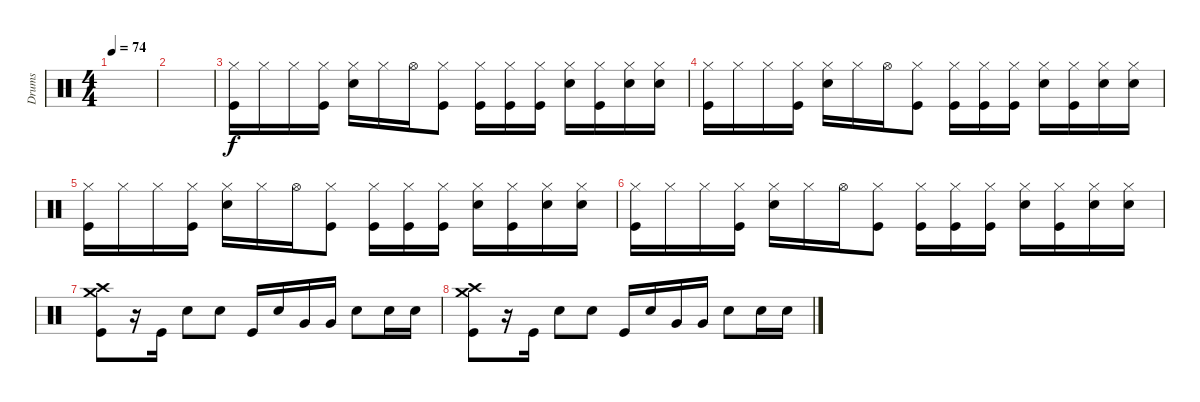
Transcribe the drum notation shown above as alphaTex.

\track ("Drums" "Drums") {instrument percussion}
\staff {score}
\articulation defaults
\ts (4 4)
\tempo 74
\clef neutral
\ks c
|
|
("Kick (hit)" "Hi-Hat (closed)").16 "Hi-Hat (closed)".16 "Hi-Hat (closed)".16 ("Kick (hit)" "Hi-Hat (closed)").16 ("Snare (hit) 2" "Hi-Hat (closed)").16 "Hi-Hat (closed)".16 "Hi-Hat (open)".16 ("Kick (hit)" "Hi-Hat (closed)").8 ("Hi-Hat (closed)" "Kick (hit)").16 ("Hi-Hat (closed)" "Kick (hit)").16 ("Kick (hit)" "Hi-Hat (closed)").16 ("Snare (hit) 2" "Hi-Hat (closed)").16 ("Kick (hit)" "Hi-Hat (closed)").16 ("Snare (hit) 2" "Hi-Hat (closed)").16 ("Snare (hit) 2" "Hi-Hat (closed)").16 |
("Kick (hit)" "Hi-Hat (closed)").16 "Hi-Hat (closed)".16 "Hi-Hat (closed)".16 ("Kick (hit)" "Hi-Hat (closed)").16 ("Snare (hit) 2" "Hi-Hat (closed)").16 "Hi-Hat (closed)".16 "Hi-Hat (open)".16 ("Kick (hit)" "Hi-Hat (closed)").8 ("Hi-Hat (closed)" "Kick (hit)").16 ("Hi-Hat (closed)" "Kick (hit)").16 ("Kick (hit)" "Hi-Hat (closed)").16 ("Snare (hit) 2" "Hi-Hat (closed)").16 ("Kick (hit)" "Hi-Hat (closed)").16 ("Snare (hit) 2" "Hi-Hat (closed)").16 ("Snare (hit) 2" "Hi-Hat (closed)").16 |
("Kick (hit)" "Hi-Hat (closed)").16 "Hi-Hat (closed)".16 "Hi-Hat (closed)".16 ("Kick (hit)" "Hi-Hat (closed)").16 ("Snare (hit) 2" "Hi-Hat (closed)").16 "Hi-Hat (closed)".16 "Hi-Hat (open)".16 ("Kick (hit)" "Hi-Hat (closed)").8 ("Hi-Hat (closed)" "Kick (hit)").16 ("Hi-Hat (closed)" "Kick (hit)").16 ("Kick (hit)" "Hi-Hat (closed)").16 ("Snare (hit) 2" "Hi-Hat (closed)").16 ("Kick (hit)" "Hi-Hat (closed)").16 ("Snare (hit) 2" "Hi-Hat (closed)").16 ("Snare (hit) 2" "Hi-Hat (closed)").16 |
("Kick (hit)" "Hi-Hat (closed)").16 "Hi-Hat (closed)".16 "Hi-Hat (closed)".16 ("Kick (hit)" "Hi-Hat (closed)").16 ("Snare (hit) 2" "Hi-Hat (closed)").16 "Hi-Hat (closed)".16 "Hi-Hat (open)".16 ("Kick (hit)" "Hi-Hat (closed)").8 ("Hi-Hat (closed)" "Kick (hit)").16 ("Hi-Hat (closed)" "Kick (hit)").16 ("Kick (hit)" "Hi-Hat (closed)").16 ("Snare (hit) 2" "Hi-Hat (closed)").16 ("Kick (hit)" "Hi-Hat (closed)").16 ("Snare (hit) 2" "Hi-Hat (closed)").16 ("Snare (hit) 2" "Hi-Hat (closed)").16 |
("Crash high (hit)" "Crash medium (hit)" "Kick (hit)").8 r.16 "Kick (hit)".16 "Snare (hit) 2".8 "Snare (hit) 2".8 "Kick (hit)".16 "Snare (hit) 2".16 "Very Low Tom (hit)".16 "Very Low Tom (hit)".16 "Snare (hit) 2".8 "Snare (hit) 2".16 "Snare (hit) 2".16 |
("Crash high (hit)" "Crash medium (hit)" "Kick (hit)").8 r.16 "Kick (hit)".16 "Snare (hit) 2".8 "Snare (hit) 2".8 "Kick (hit)".16 "Snare (hit) 2".16 "Very Low Tom (hit)".16 "Very Low Tom (hit)".16 "Snare (hit) 2".8 "Snare (hit) 2".16 "Snare (hit) 2".16
